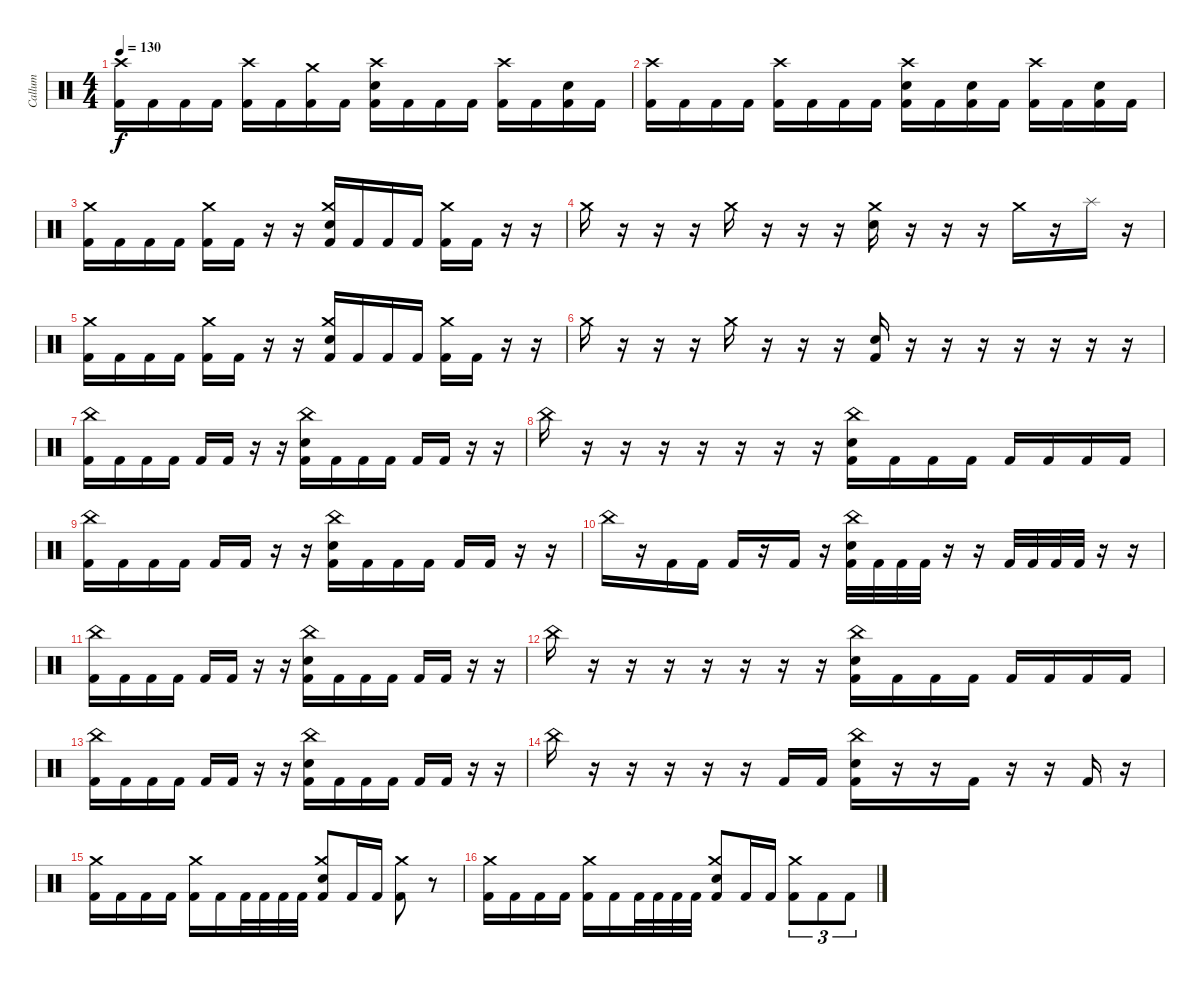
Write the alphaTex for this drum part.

\track ("Callum" "Callum") {instrument percussion}
\staff {score}
\articulation defaults
\ts (4 4)
\tempo 130
\clef neutral
\ks c
("Crash high (hit)" "Kick (hit) 2").16{dy f} "Kick (hit) 2".16 "Kick (hit) 2".16 "Kick (hit) 2".16 ("Crash high (hit)" "Kick (hit) 2").16 "Kick (hit) 2".16 ("Crash medium (hit)" "Kick (hit) 2").16 "Kick (hit) 2".16 ("Crash high (hit)" "Electric Snare (hit)" "Kick (hit) 2").16 "Kick (hit) 2".16 "Kick (hit) 2".16 "Kick (hit) 2".16 ("Crash high (hit)" "Kick (hit) 2").16 "Kick (hit) 2".16 ("Electric Snare (hit)" "Kick (hit) 2").16 "Kick (hit) 2".16 |
("Crash high (hit)" "Kick (hit) 2").16 "Kick (hit) 2".16 "Kick (hit) 2".16 "Kick (hit) 2".16 ("Crash high (hit)" "Kick (hit) 2").16 "Kick (hit) 2".16 "Kick (hit) 2".16 "Kick (hit) 2".16 ("Crash high (hit)" "Electric Snare (hit)" "Kick (hit) 2").16 "Kick (hit) 2".16 ("Electric Snare (hit)" "Kick (hit) 2").16 "Kick (hit) 2".16 ("Crash high (hit)" "Kick (hit) 2").16 "Kick (hit) 2".16 ("Electric Snare (hit)" "Kick (hit) 2").16 "Kick (hit) 2".16 |
("Crash medium (hit)" "Kick (hit) 2").16 "Kick (hit) 2".16 "Kick (hit) 2".16 "Kick (hit) 2".16 ("Crash medium (hit)" "Kick (hit) 2").16 "Kick (hit) 2".16 r.16 r.16 ("Crash medium (hit)" "Electric Snare (hit)" "Kick (hit) 2").16 "Kick (hit) 2".16 "Kick (hit) 2".16 "Kick (hit) 2".16 ("Crash medium (hit)" "Kick (hit) 2").16 "Kick (hit) 2".16 r.16 r.16 |
"Crash medium (hit)".16 r.16 r.16 r.16 "Crash medium (hit)".16 r.16 r.16 r.16 ("Crash medium (hit)" "Electric Snare (hit)").16 r.16 r.16 r.16 "Crash medium (hit)".16 r.16 "Splash (hit)".16 r.16 |
("Crash medium (hit)" "Kick (hit) 2").16 "Kick (hit) 2".16 "Kick (hit) 2".16 "Kick (hit) 2".16 ("Crash medium (hit)" "Kick (hit) 2").16 "Kick (hit) 2".16 r.16 r.16 ("Crash medium (hit)" "Electric Snare (hit)" "Kick (hit) 2").16 "Kick (hit) 2".16 "Kick (hit) 2".16 "Kick (hit) 2".16 ("Crash medium (hit)" "Kick (hit) 2").16 "Kick (hit) 2".16 r.16 r.16 |
"Crash medium (hit)".16 r.16 r.16 r.16 "Crash medium (hit)".16 r.16 r.16 r.16 ("Electric Snare (hit)" "Kick (hit) 2").16 r.16 r.16 r.16 r.16 r.16 r.16 r.16 |
("China (hit)" "Kick (hit) 2").16 "Kick (hit) 2".16 "Kick (hit) 2".16 "Kick (hit) 2".16 "Kick (hit) 2".16 "Kick (hit) 2".16 r.16 r.16 ("China (hit)" "Electric Snare (hit)" "Kick (hit) 2").16 "Kick (hit) 2".16 "Kick (hit) 2".16 "Kick (hit) 2".16 "Kick (hit) 2".16 "Kick (hit) 2".16 r.16 r.16 |
"China (hit)".16 r.16 r.16 r.16 r.16 r.16 r.16 r.16 ("China (hit)" "Electric Snare (hit)" "Kick (hit) 2").16 "Kick (hit) 2".16 "Kick (hit) 2".16 "Kick (hit) 2".16 "Kick (hit) 2".16 "Kick (hit) 2".16 "Kick (hit) 2".16 "Kick (hit) 2".16 |
("China (hit)" "Kick (hit) 2").16 "Kick (hit) 2".16 "Kick (hit) 2".16 "Kick (hit) 2".16 "Kick (hit) 2".16 "Kick (hit) 2".16 r.16 r.16 ("China (hit)" "Electric Snare (hit)" "Kick (hit) 2").16 "Kick (hit) 2".16 "Kick (hit) 2".16 "Kick (hit) 2".16 "Kick (hit) 2".16 "Kick (hit) 2".16 r.16 r.16 |
"China (hit)".16 r.16 "Kick (hit) 2".16 "Kick (hit) 2".16 "Kick (hit) 2".16 r.16 "Kick (hit) 2".16 r.16 ("China (hit)" "Electric Snare (hit)" "Kick (hit) 2").32 "Kick (hit) 2".32 "Kick (hit) 2".32 "Kick (hit) 2".32 r.16 r.16 "Kick (hit) 2".32 "Kick (hit) 2".32 "Kick (hit) 2".32 "Kick (hit) 2".32 r.16 r.16 |
("China (hit)" "Kick (hit) 2").16 "Kick (hit) 2".16 "Kick (hit) 2".16 "Kick (hit) 2".16 "Kick (hit) 2".16 "Kick (hit) 2".16 r.16 r.16 ("China (hit)" "Electric Snare (hit)" "Kick (hit) 2").16 "Kick (hit) 2".16 "Kick (hit) 2".16 "Kick (hit) 2".16 "Kick (hit) 2".16 "Kick (hit) 2".16 r.16 r.16 |
"China (hit)".16 r.16 r.16 r.16 r.16 r.16 r.16 r.16 ("China (hit)" "Electric Snare (hit)" "Kick (hit) 2").16 "Kick (hit) 2".16 "Kick (hit) 2".16 "Kick (hit) 2".16 "Kick (hit) 2".16 "Kick (hit) 2".16 "Kick (hit) 2".16 "Kick (hit) 2".16 |
("China (hit)" "Kick (hit) 2").16 "Kick (hit) 2".16 "Kick (hit) 2".16 "Kick (hit) 2".16 "Kick (hit) 2".16 "Kick (hit) 2".16 r.16 r.16 ("China (hit)" "Electric Snare (hit)" "Kick (hit) 2").16 "Kick (hit) 2".16 "Kick (hit) 2".16 "Kick (hit) 2".16 "Kick (hit) 2".16 "Kick (hit) 2".16 r.16 r.16 |
"China (hit)".16 r.16 r.16 r.16 r.16 r.16 "Kick (hit) 2".16 "Kick (hit) 2".16 ("China (hit)" "Electric Snare (hit)" "Kick (hit) 2").16 r.16 r.16 "Kick (hit) 2".16 r.16 r.16 "Kick (hit) 2".16 r.16 |
("Crash medium (hit)" "Kick (hit) 2").16 "Kick (hit) 2".16 "Kick (hit) 2".16 "Kick (hit) 2".16 ("Crash medium (hit)" "Kick (hit) 2").16 "Kick (hit) 2".16 "Kick (hit) 2".32 "Kick (hit) 2".32 "Kick (hit) 2".32 "Kick (hit) 2".32 ("Crash medium (hit)" "Electric Snare (hit)" "Kick (hit) 2").8 "Kick (hit) 2".16 "Kick (hit) 2".16 ("Crash medium (hit)" "Kick (hit) 2").8 r.8 |
("Crash medium (hit)" "Kick (hit) 2").16 "Kick (hit) 2".16 "Kick (hit) 2".16 "Kick (hit) 2".16 ("Crash medium (hit)" "Kick (hit) 2").16 "Kick (hit) 2".16 "Kick (hit) 2".32 "Kick (hit) 2".32 "Kick (hit) 2".32 "Kick (hit) 2".32 ("Crash medium (hit)" "Electric Snare (hit)" "Kick (hit) 2").8 "Kick (hit) 2".16 "Kick (hit) 2".16 ("Crash medium (hit)" "Kick (hit) 2").8{tu (3 2)} "Kick (hit) 2".8{tu (3 2)} "Kick (hit) 2".8{tu (3 2)}
